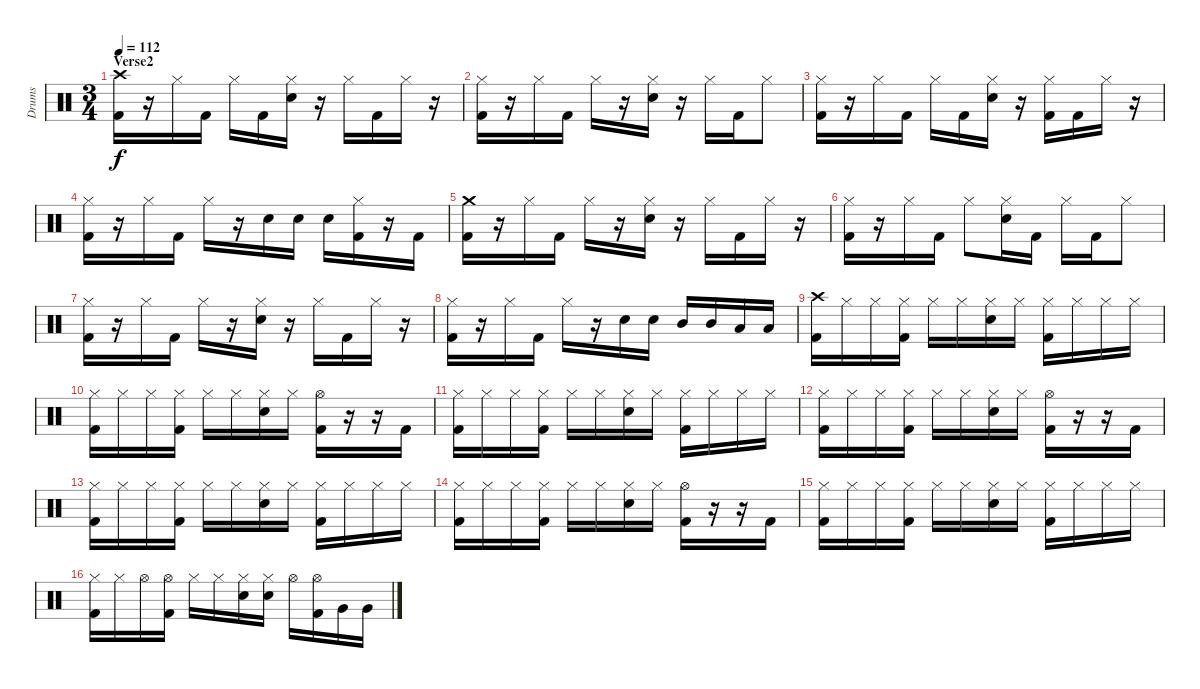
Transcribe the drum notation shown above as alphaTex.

\track ("Drums" "Drums") {instrument percussion}
\staff {score}
\articulation defaults
\ts (3 4)
\section ("" "Verse2")
\tempo 112
\clef neutral
\ks c
("Crash high (hit)" "Kick (hit) 2").16{dy f} r.16 "Hi-Hat (closed)".16 "Kick (hit) 2".16 "Hi-Hat (closed)".16 "Kick (hit) 2".16 ("Hi-Hat (closed)" "Electric Snare (hit)").16 r.16 "Hi-Hat (closed)".16 "Kick (hit) 2".16 "Hi-Hat (closed)".16 r.16 |
("Hi-Hat (closed)" "Kick (hit) 2").16 r.16 "Hi-Hat (closed)".16 "Kick (hit) 2".16 "Hi-Hat (closed)".16 r.16 ("Hi-Hat (closed)" "Electric Snare (hit)").16 r.16 "Hi-Hat (closed)".16 "Kick (hit) 2".16 "Hi-Hat (closed)".8 |
("Hi-Hat (closed)" "Kick (hit) 2").16 r.16 "Hi-Hat (closed)".16 "Kick (hit) 2".16 "Hi-Hat (closed)".16 "Kick (hit) 2".16 ("Hi-Hat (closed)" "Electric Snare (hit)").16 r.16 ("Hi-Hat (closed)" "Kick (hit) 2").16 "Kick (hit) 2".16 "Hi-Hat (closed)".16 r.16 |
("Hi-Hat (closed)" "Kick (hit) 2").16 r.16 "Hi-Hat (closed)".16 "Kick (hit) 2".16 "Hi-Hat (closed)".16 r.16 "Electric Snare (hit)".16 "Electric Snare (hit)".16 "Electric Snare (hit)".16 ("Hi-Hat (closed)" "Kick (hit) 2").16 r.16 "Kick (hit) 2".16 |
("Crash medium (hit)" "Kick (hit) 2").16 r.16 "Hi-Hat (closed)".16 "Kick (hit) 2".16 "Hi-Hat (closed)".16 r.16 ("Hi-Hat (closed)" "Electric Snare (hit)").16 r.16 "Hi-Hat (closed)".16 "Kick (hit) 2".16 "Hi-Hat (closed)".16 r.16 |
("Hi-Hat (closed)" "Kick (hit) 2").16 r.16 "Hi-Hat (closed)".16 "Kick (hit) 2".16 "Hi-Hat (closed)".8 ("Hi-Hat (closed)" "Electric Snare (hit)").16 "Kick (hit) 2".16 "Hi-Hat (closed)".16 "Kick (hit) 2".16 "Hi-Hat (closed)".8 |
("Hi-Hat (closed)" "Kick (hit) 2").16 r.16 "Hi-Hat (closed)".16 "Kick (hit) 2".16 "Hi-Hat (closed)".16 r.16 ("Hi-Hat (closed)" "Electric Snare (hit)").16 r.16 "Hi-Hat (closed)".16 "Kick (hit) 2".16 "Hi-Hat (closed)".16 r.16 |
("Hi-Hat (closed)" "Kick (hit) 2").16 r.16 "Hi-Hat (closed)".16 "Kick (hit) 2".16 "Hi-Hat (closed)".16 r.16 "Electric Snare (hit)".16 "Electric Snare (hit)".16 "Mid Tom (hit)".16 "Mid Tom (hit)".16 "Low Tom (hit)".16 "Low Tom (hit)".16 |
("Crash high (hit)" "Kick (hit) 2").16 "Hi-Hat (closed)".16 "Hi-Hat (closed)".16 ("Hi-Hat (closed)" "Kick (hit) 2").16 "Hi-Hat (closed)".16 "Hi-Hat (closed)".16 ("Hi-Hat (closed)" "Electric Snare (hit)").16 "Hi-Hat (closed)".16 ("Hi-Hat (closed)" "Kick (hit) 2").16 "Hi-Hat (closed)".16 "Hi-Hat (closed)".16 "Hi-Hat (closed)".16 |
("Hi-Hat (closed)" "Kick (hit) 2").16 "Hi-Hat (closed)".16 "Hi-Hat (closed)".16 ("Hi-Hat (closed)" "Kick (hit) 2").16 "Hi-Hat (closed)".16 "Hi-Hat (closed)".16 ("Hi-Hat (closed)" "Electric Snare (hit)").16 "Hi-Hat (closed)".16 ("Hi-Hat (open)" "Kick (hit) 2").16 r.16 r.16 "Kick (hit) 2".16 |
("Hi-Hat (closed)" "Kick (hit) 2").16 "Hi-Hat (closed)".16 "Hi-Hat (closed)".16 ("Hi-Hat (closed)" "Kick (hit) 2").16 "Hi-Hat (closed)".16 "Hi-Hat (closed)".16 ("Hi-Hat (closed)" "Electric Snare (hit)").16 "Hi-Hat (closed)".16 ("Hi-Hat (closed)" "Kick (hit) 2").16 "Hi-Hat (closed)".16 "Hi-Hat (closed)".16 "Hi-Hat (closed)".16 |
("Hi-Hat (closed)" "Kick (hit) 2").16 "Hi-Hat (closed)".16 "Hi-Hat (closed)".16 ("Hi-Hat (closed)" "Kick (hit) 2").16 "Hi-Hat (closed)".16 "Hi-Hat (closed)".16 ("Hi-Hat (closed)" "Electric Snare (hit)").16 "Hi-Hat (closed)".16 ("Hi-Hat (open)" "Kick (hit) 2").16 r.16 r.16 "Kick (hit) 2".16 |
("Hi-Hat (closed)" "Kick (hit) 2").16 "Hi-Hat (closed)".16 "Hi-Hat (closed)".16 ("Hi-Hat (closed)" "Kick (hit) 2").16 "Hi-Hat (closed)".16 "Hi-Hat (closed)".16 ("Hi-Hat (closed)" "Electric Snare (hit)").16 "Hi-Hat (closed)".16 ("Hi-Hat (closed)" "Kick (hit) 2").16 "Hi-Hat (closed)".16 "Hi-Hat (closed)".16 "Hi-Hat (closed)".16 |
("Hi-Hat (closed)" "Kick (hit) 2").16 "Hi-Hat (closed)".16 "Hi-Hat (closed)".16 ("Hi-Hat (closed)" "Kick (hit) 2").16 "Hi-Hat (closed)".16 "Hi-Hat (closed)".16 ("Hi-Hat (closed)" "Electric Snare (hit)").16 "Hi-Hat (closed)".16 ("Hi-Hat (open)" "Kick (hit) 2").16 r.16 r.16 "Kick (hit) 2".16 |
("Hi-Hat (closed)" "Kick (hit) 2").16 "Hi-Hat (closed)".16 "Hi-Hat (closed)".16 ("Hi-Hat (closed)" "Kick (hit) 2").16 "Hi-Hat (closed)".16 "Hi-Hat (closed)".16 ("Hi-Hat (closed)" "Electric Snare (hit)").16 "Hi-Hat (closed)".16 ("Hi-Hat (closed)" "Kick (hit) 2").16 "Hi-Hat (closed)".16 "Hi-Hat (closed)".16 "Hi-Hat (closed)".16 |
("Hi-Hat (closed)" "Kick (hit) 2").16 "Hi-Hat (closed)".16 "Hi-Hat (open)".16 ("Hi-Hat (open)" "Kick (hit) 2").16 "Hi-Hat (closed)".16 "Hi-Hat (closed)".16 ("Hi-Hat (closed)" "Electric Snare (hit)").16 ("Hi-Hat (closed)" "Electric Snare (hit)").16 "Hi-Hat (open)".16 ("Hi-Hat (open)" "Kick (hit) 2").16 "Very Low Tom (hit)".16 "Very Low Tom (hit)".16
